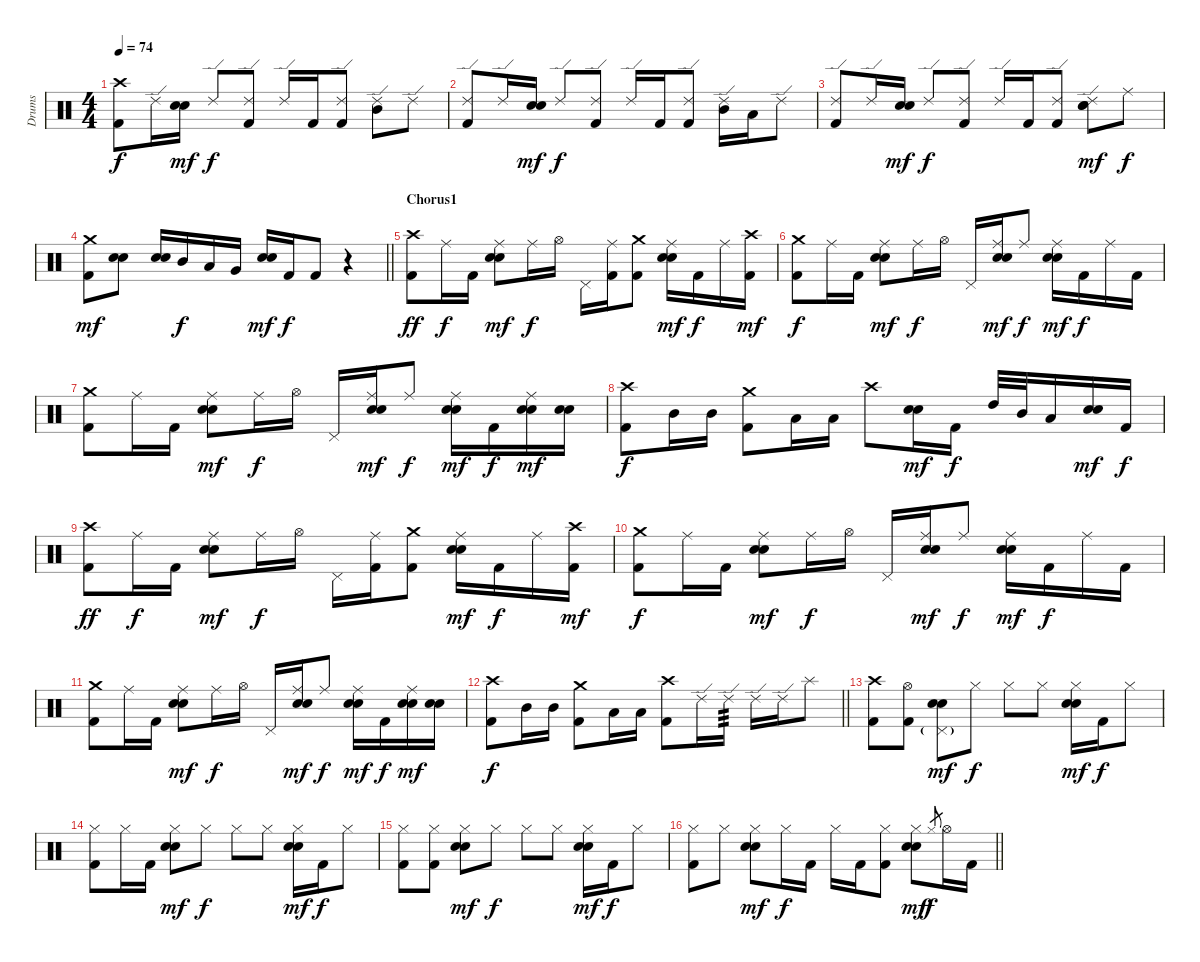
\track ("Drums" "Drums") {instrument percussion}
\staff {score}
\articulation defaults
\ts (4 4)
\tempo 74
\clef neutral
\ks c
("Crash high (hit)" "Kick (hit) 2").8{dy f} "Ride (edge) 2".16 ("Electric Snare (hit)" "Snare (hit) 2").16{dy mf} "Ride (edge) 2".8{dy f} ("Ride (edge) 2" "Kick (hit) 2").8 "Ride (edge) 2".16 "Kick (hit) 2".16 ("Ride (edge) 2" "Kick (hit) 2").8 ("Ride (edge) 2" "Mid Tom (hit)").8 "Ride (edge) 2".8 |
("Ride (edge) 2" "Kick (hit) 2").8 "Ride (edge) 2".16 ("Electric Snare (hit)" "Snare (hit) 2").16{dy mf} "Ride (edge) 2".8{dy f} ("Ride (edge) 2" "Kick (hit) 2").8 "Ride (edge) 2".16 "Kick (hit) 2".16 ("Ride (edge) 2" "Kick (hit) 2").8 ("Ride (edge) 2" "Mid Tom (hit)").16 "Low Tom (hit)".16 "Ride (edge) 2".8 |
("Ride (edge) 2" "Kick (hit) 2").8 "Ride (edge) 2".16 ("Electric Snare (hit)" "Snare (hit) 2").16{dy mf} "Ride (edge) 2".8{dy f} ("Ride (edge) 2" "Kick (hit) 2").8 "Ride (edge) 2".16 "Kick (hit) 2".16 ("Ride (edge) 2" "Kick (hit) 2").8 ("Ride (edge) 2" "Electric Snare (hit)" "Snare (hit) 2").8{dy mf} "Ride (middle)".8{dy f} |
\barLineRight lightlight
("Crash medium (hit)" "Kick (hit) 2").8{dy mf} ("Electric Snare (hit)" "Snare (hit) 2").8 ("Electric Snare (hit)" "Snare (hit) 2").16 "Mid Tom (hit)".16{dy f} "Low Tom (hit)".16 "Very Low Tom (hit)".16 ("Electric Snare (hit)" "Snare (hit) 2").16{dy mf} "Kick (hit) 2".16{dy f} "Kick (hit) 2".8 r.4 |
\section ("" "Chorus1")
("Crash high (hit)" "Kick (hit) 2").8{dy ff} "Ride (middle)".16{dy f} "Kick (hit) 2".16 ("Ride (middle)" "Electric Snare (hit)" "Snare (hit) 2").8{dy mf} "Ride (middle)".16{dy f} "Hi-Hat (open)".16 "Pedal Hi-Hat (hit)".16 ("Ride (middle)" "Kick (hit) 2").16 ("Crash medium (hit)" "Kick (hit) 2").8 ("Ride (middle)" "Electric Snare (hit)" "Snare (hit) 2").16{dy mf} "Kick (hit) 2".16{dy f} "Ride (middle)".16 ("Crash high (hit)" "Kick (hit) 2").16{dy mf} |
("Crash medium (hit)" "Kick (hit) 2").8{dy f} "Ride (middle)".16 "Kick (hit) 2".16 ("Ride (middle)" "Electric Snare (hit)" "Snare (hit) 2").8{dy mf} "Ride (middle)".16{dy f} "Hi-Hat (open)".16 "Pedal Hi-Hat (hit)".16 ("Ride (middle)" "Electric Snare (hit)" "Snare (hit) 2").16{dy mf} "Ride (middle)".8{dy f} ("Ride (middle)" "Electric Snare (hit)" "Snare (hit) 2").16{dy mf} "Kick (hit) 2".16{dy f} "Ride (middle)".16 "Kick (hit) 2".16 |
("Crash medium (hit)" "Kick (hit) 2").8 "Ride (middle)".16 "Kick (hit) 2".16 ("Ride (middle)" "Electric Snare (hit)" "Snare (hit) 2").8{dy mf} "Ride (middle)".16{dy f} "Hi-Hat (open)".16 "Pedal Hi-Hat (hit)".16 ("Ride (middle)" "Electric Snare (hit)" "Snare (hit) 2").16{dy mf} "Ride (middle)".8{dy f} ("Ride (middle)" "Electric Snare (hit)" "Snare (hit) 2").16{dy mf} "Kick (hit) 2".16{dy f} ("Ride (middle)" "Electric Snare (hit)" "Snare (hit) 2").16{dy mf} ("Electric Snare (hit)" "Snare (hit) 2").16 |
("Crash high (hit)" "Kick (hit) 2").8{dy f} "Mid Tom (hit)".16 "Mid Tom (hit)".16 ("Crash medium (hit)" "Kick (hit) 2").8 "Low Tom (hit)".16 "Low Tom (hit)".16 "Crash high (hit)".8 ("Electric Snare (hit)" "Snare (hit) 2").16{dy mf} "Kick (hit) 2".16{dy f} "High Tom (hit)".32 "Mid Tom (hit)".32 "Low Tom (hit)".16 ("Electric Snare (hit)" "Snare (hit) 2").16{dy mf} "Kick (hit) 2".16{dy f} |
("Crash high (hit)" "Kick (hit) 2").8{dy ff} "Ride (middle)".16{dy f} "Kick (hit) 2".16 ("Ride (middle)" "Electric Snare (hit)" "Snare (hit) 2").8{dy mf} "Ride (middle)".16{dy f} "Hi-Hat (open)".16 "Pedal Hi-Hat (hit)".16 ("Ride (middle)" "Kick (hit) 2").16 ("Crash medium (hit)" "Kick (hit) 2").8 ("Ride (middle)" "Electric Snare (hit)" "Snare (hit) 2").16{dy mf} "Kick (hit) 2".16{dy f} "Ride (middle)".16 ("Crash high (hit)" "Kick (hit) 2").16{dy mf} |
("Crash medium (hit)" "Kick (hit) 2").8{dy f} "Ride (middle)".16 "Kick (hit) 2".16 ("Ride (middle)" "Electric Snare (hit)" "Snare (hit) 2").8{dy mf} "Ride (middle)".16{dy f} "Hi-Hat (open)".16 "Pedal Hi-Hat (hit)".16 ("Ride (middle)" "Electric Snare (hit)" "Snare (hit) 2").16{dy mf} "Ride (middle)".8{dy f} ("Ride (middle)" "Electric Snare (hit)" "Snare (hit) 2").16{dy mf} "Kick (hit) 2".16{dy f} "Ride (middle)".16 "Kick (hit) 2".16 |
("Crash medium (hit)" "Kick (hit) 2").8 "Ride (middle)".16 "Kick (hit) 2".16 ("Ride (middle)" "Electric Snare (hit)" "Snare (hit) 2").8{dy mf} "Ride (middle)".16{dy f} "Hi-Hat (open)".16 "Pedal Hi-Hat (hit)".16 ("Ride (middle)" "Electric Snare (hit)" "Snare (hit) 2").16{dy mf} "Ride (middle)".8{dy f} ("Ride (middle)" "Electric Snare (hit)" "Snare (hit) 2").16{dy mf} "Kick (hit) 2".16{dy f} ("Ride (middle)" "Electric Snare (hit)" "Snare (hit) 2").16{dy mf} ("Electric Snare (hit)" "Snare (hit) 2").16 |
\barLineRight lightlight
("Crash high (hit)" "Kick (hit) 2").8{dy f} "Mid Tom (hit)".16 "Mid Tom (hit)".16 ("Crash medium (hit)" "Kick (hit) 2").8 "Low Tom (hit)".16 "Low Tom (hit)".16 ("Crash high (hit)" "Kick (hit) 2").8 "Ride (edge) 2".16 "Ride (edge) 2".16{tp 3} "Ride (edge) 2".16 "Ride (edge) 2".16 "Splash (hit)".8 |
\section ("" "")
("Crash high (hit)" "Kick (hit) 2").8 ("Hi-Hat (open)" "Kick (hit) 2").8 ("Pedal Hi-Hat (hit)"{g} "Electric Snare (hit)" "Snare (hit) 2").8{dy mf} "Hi-Hat (closed)".8{dy f} "Hi-Hat (closed)".8 "Hi-Hat (closed)".8 ("Hi-Hat (closed)" "Electric Snare (hit)" "Snare (hit) 2").16{dy mf} "Kick (hit) 2".16{dy f} "Hi-Hat (closed)".8 |
("Hi-Hat (closed)" "Kick (hit) 2").8 "Hi-Hat (closed)".16 "Kick (hit) 2".16 ("Hi-Hat (closed)" "Electric Snare (hit)" "Snare (hit) 2").8{dy mf} "Hi-Hat (closed)".8{dy f} "Hi-Hat (closed)".8 "Hi-Hat (closed)".8 ("Hi-Hat (closed)" "Electric Snare (hit)" "Snare (hit) 2").16{dy mf} "Kick (hit) 2".16{dy f} "Hi-Hat (closed)".8 |
("Hi-Hat (closed)" "Kick (hit) 2").8 ("Hi-Hat (closed)" "Kick (hit) 2").8 ("Hi-Hat (closed)" "Electric Snare (hit)" "Snare (hit) 2").8{dy mf} "Hi-Hat (closed)".8{dy f} "Hi-Hat (closed)".8 "Hi-Hat (closed)".8 ("Hi-Hat (closed)" "Electric Snare (hit)" "Snare (hit) 2").16{dy mf} "Kick (hit) 2".16{dy f} "Hi-Hat (closed)".8 |
\barLineRight lightlight
("Hi-Hat (closed)" "Kick (hit) 2").8 "Hi-Hat (closed)".8 ("Hi-Hat (closed)" "Electric Snare (hit)" "Snare (hit) 2").8{dy mf} "Hi-Hat (closed)".16{dy f} "Kick (hit) 2".16 "Hi-Hat (closed)".16 "Kick (hit) 2".16 ("Hi-Hat (closed)" "Kick (hit) 2").8 ("Hi-Hat (closed)" "Electric Snare (hit)" "Snare (hit) 2").8{dy mf} "Hi-Hat (closed)".8{gr dy f} "Hi-Hat (open)".16 "Kick (hit) 2".16
